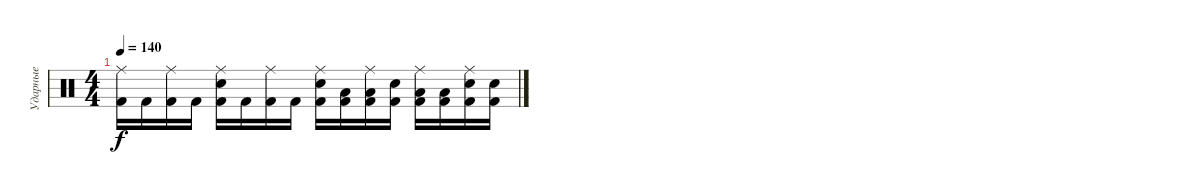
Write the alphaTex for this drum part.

\track ("Ударные" "Ударные") {instrument percussion}
\staff {score}
\articulation defaults
\ts (4 4)
\tempo 140
\clef neutral
\ks c
("Ride (middle)" "Kick (hit) 2").16{dy f} "Kick (hit) 2".16 ("Ride (middle)" "Kick (hit) 2").16 "Kick (hit) 2".16 ("Ride (middle)" "Electric Snare (hit)" "Kick (hit) 2").16 "Kick (hit) 2".16 ("Ride (middle)" "Kick (hit) 2").16 "Kick (hit) 2".16 ("Ride (middle)" "Electric Snare (hit)" "Kick (hit) 2").16 ("Low Tom (hit)" "Kick (hit) 2").16 ("Ride (middle)" "Low Tom (hit)" "Kick (hit) 2").16 ("Electric Snare (hit)" "Kick (hit) 2").16 ("Ride (middle)" "Low Tom (hit)" "Kick (hit) 2").16 ("Low Tom (hit)" "Kick (hit) 2").16 ("Ride (middle)" "Electric Snare (hit)" "Kick (hit) 2").16 ("Electric Snare (hit)" "Kick (hit) 2").16
